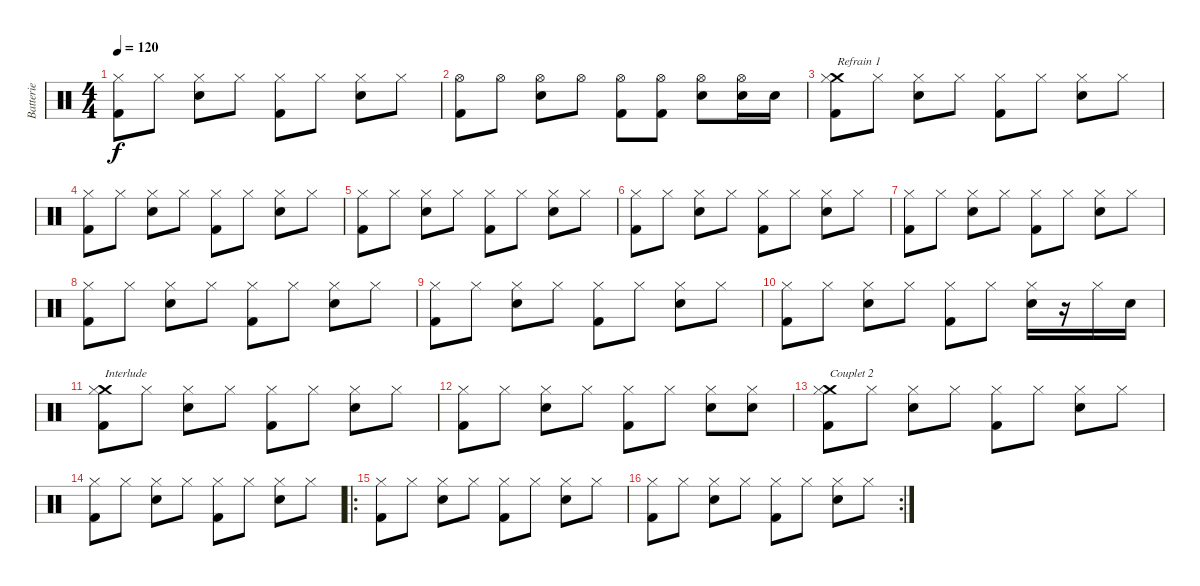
\track ("Batterie" "Batterie") {instrument percussion}
\staff {score}
\articulation defaults
\ts (4 4)
\tempo 120
\clef neutral
\ks c
("Kick (hit) 2" "Hi-Hat (closed)").8{dy f} "Hi-Hat (closed)".8 ("Snare (hit) 2" "Hi-Hat (closed)").8 "Hi-Hat (closed)".8 ("Kick (hit) 2" "Hi-Hat (closed)").8 "Hi-Hat (closed)".8 ("Snare (hit) 2" "Hi-Hat (closed)").8 "Hi-Hat (closed)".8 |
("Kick (hit) 2" "Hi-Hat (open)").8 "Hi-Hat (open)".8 ("Snare (hit) 2" "Hi-Hat (open)").8 "Hi-Hat (open)".8 ("Kick (hit) 2" "Hi-Hat (open)").8 ("Kick (hit) 2" "Hi-Hat (open)").8 ("Snare (hit) 2" "Hi-Hat (open)").8 ("Snare (hit) 2" "Hi-Hat (open)").16 "Snare (hit) 2".16 |
("Kick (hit) 2" "Crash medium (hit)" "Hi-Hat (closed)").8{txt "Refrain 1"} "Hi-Hat (closed)".8 ("Snare (hit) 2" "Hi-Hat (closed)").8 "Hi-Hat (closed)".8 ("Kick (hit) 2" "Hi-Hat (closed)").8 "Hi-Hat (closed)".8 ("Snare (hit) 2" "Hi-Hat (closed)").8 "Hi-Hat (closed)".8 |
("Kick (hit) 2" "Hi-Hat (closed)").8 "Hi-Hat (closed)".8 ("Snare (hit) 2" "Hi-Hat (closed)").8 "Hi-Hat (closed)".8 ("Kick (hit) 2" "Hi-Hat (closed)").8 "Hi-Hat (closed)".8 ("Snare (hit) 2" "Hi-Hat (closed)").8 "Hi-Hat (closed)".8 |
("Kick (hit) 2" "Hi-Hat (closed)").8 "Hi-Hat (closed)".8 ("Snare (hit) 2" "Hi-Hat (closed)").8 "Hi-Hat (closed)".8 ("Kick (hit) 2" "Hi-Hat (closed)").8 "Hi-Hat (closed)".8 ("Snare (hit) 2" "Hi-Hat (closed)").8 "Hi-Hat (closed)".8 |
("Kick (hit) 2" "Hi-Hat (closed)").8 "Hi-Hat (closed)".8 ("Snare (hit) 2" "Hi-Hat (closed)").8 "Hi-Hat (closed)".8 ("Kick (hit) 2" "Hi-Hat (closed)").8 "Hi-Hat (closed)".8 ("Snare (hit) 2" "Hi-Hat (closed)").8 "Hi-Hat (closed)".8 |
("Kick (hit) 2" "Hi-Hat (closed)").8 "Hi-Hat (closed)".8 ("Snare (hit) 2" "Hi-Hat (closed)").8 "Hi-Hat (closed)".8 ("Kick (hit) 2" "Hi-Hat (closed)").8 "Hi-Hat (closed)".8 ("Snare (hit) 2" "Hi-Hat (closed)").8 "Hi-Hat (closed)".8 |
("Kick (hit) 2" "Hi-Hat (closed)").8 "Hi-Hat (closed)".8 ("Snare (hit) 2" "Hi-Hat (closed)").8 "Hi-Hat (closed)".8 ("Kick (hit) 2" "Hi-Hat (closed)").8 "Hi-Hat (closed)".8 ("Snare (hit) 2" "Hi-Hat (closed)").8 "Hi-Hat (closed)".8 |
("Kick (hit) 2" "Hi-Hat (closed)").8 "Hi-Hat (closed)".8 ("Snare (hit) 2" "Hi-Hat (closed)").8 "Hi-Hat (closed)".8 ("Kick (hit) 2" "Hi-Hat (closed)").8 "Hi-Hat (closed)".8 ("Snare (hit) 2" "Hi-Hat (closed)").8 "Hi-Hat (closed)".8 |
("Kick (hit) 2" "Hi-Hat (closed)").8 "Hi-Hat (closed)".8 ("Snare (hit) 2" "Hi-Hat (closed)").8 "Hi-Hat (closed)".8 ("Kick (hit) 2" "Hi-Hat (closed)").8 "Hi-Hat (closed)".8 ("Snare (hit) 2" "Hi-Hat (closed)").16 r.16 "Hi-Hat (closed)".16 "Snare (hit) 2".16 |
("Kick (hit) 2" "Crash medium (hit)" "Hi-Hat (closed)").8{txt "Interlude"} "Hi-Hat (closed)".8 ("Snare (hit) 2" "Hi-Hat (closed)").8 "Hi-Hat (closed)".8 ("Kick (hit) 2" "Hi-Hat (closed)").8 "Hi-Hat (closed)".8 ("Snare (hit) 2" "Hi-Hat (closed)").8 "Hi-Hat (closed)".8 |
("Kick (hit) 2" "Hi-Hat (closed)").8 "Hi-Hat (closed)".8 ("Snare (hit) 2" "Hi-Hat (closed)").8 "Hi-Hat (closed)".8 ("Kick (hit) 2" "Hi-Hat (closed)").8 "Hi-Hat (closed)".8 ("Snare (hit) 2" "Hi-Hat (closed)").8 ("Snare (hit) 2" "Hi-Hat (closed)").8 |
("Kick (hit) 2" "Crash medium (hit)" "Hi-Hat (closed)").8{txt "Couplet 2"} "Hi-Hat (closed)".8 ("Snare (hit) 2" "Hi-Hat (closed)").8 "Hi-Hat (closed)".8 ("Kick (hit) 2" "Hi-Hat (closed)").8 "Hi-Hat (closed)".8 ("Snare (hit) 2" "Hi-Hat (closed)").8 "Hi-Hat (closed)".8 |
("Kick (hit) 2" "Hi-Hat (closed)").8 "Hi-Hat (closed)".8 ("Snare (hit) 2" "Hi-Hat (closed)").8 "Hi-Hat (closed)".8 ("Kick (hit) 2" "Hi-Hat (closed)").8 "Hi-Hat (closed)".8 ("Snare (hit) 2" "Hi-Hat (closed)").8 "Hi-Hat (closed)".8 |
\ro
("Kick (hit) 2" "Hi-Hat (closed)").8 "Hi-Hat (closed)".8 ("Snare (hit) 2" "Hi-Hat (closed)").8 "Hi-Hat (closed)".8 ("Kick (hit) 2" "Hi-Hat (closed)").8 "Hi-Hat (closed)".8 ("Snare (hit) 2" "Hi-Hat (closed)").8 "Hi-Hat (closed)".8 |
\rc 2
("Kick (hit) 2" "Hi-Hat (closed)").8 "Hi-Hat (closed)".8 ("Snare (hit) 2" "Hi-Hat (closed)").8 "Hi-Hat (closed)".8 ("Kick (hit) 2" "Hi-Hat (closed)").8 "Hi-Hat (closed)".8 ("Snare (hit) 2" "Hi-Hat (closed)").8 "Hi-Hat (closed)".8
